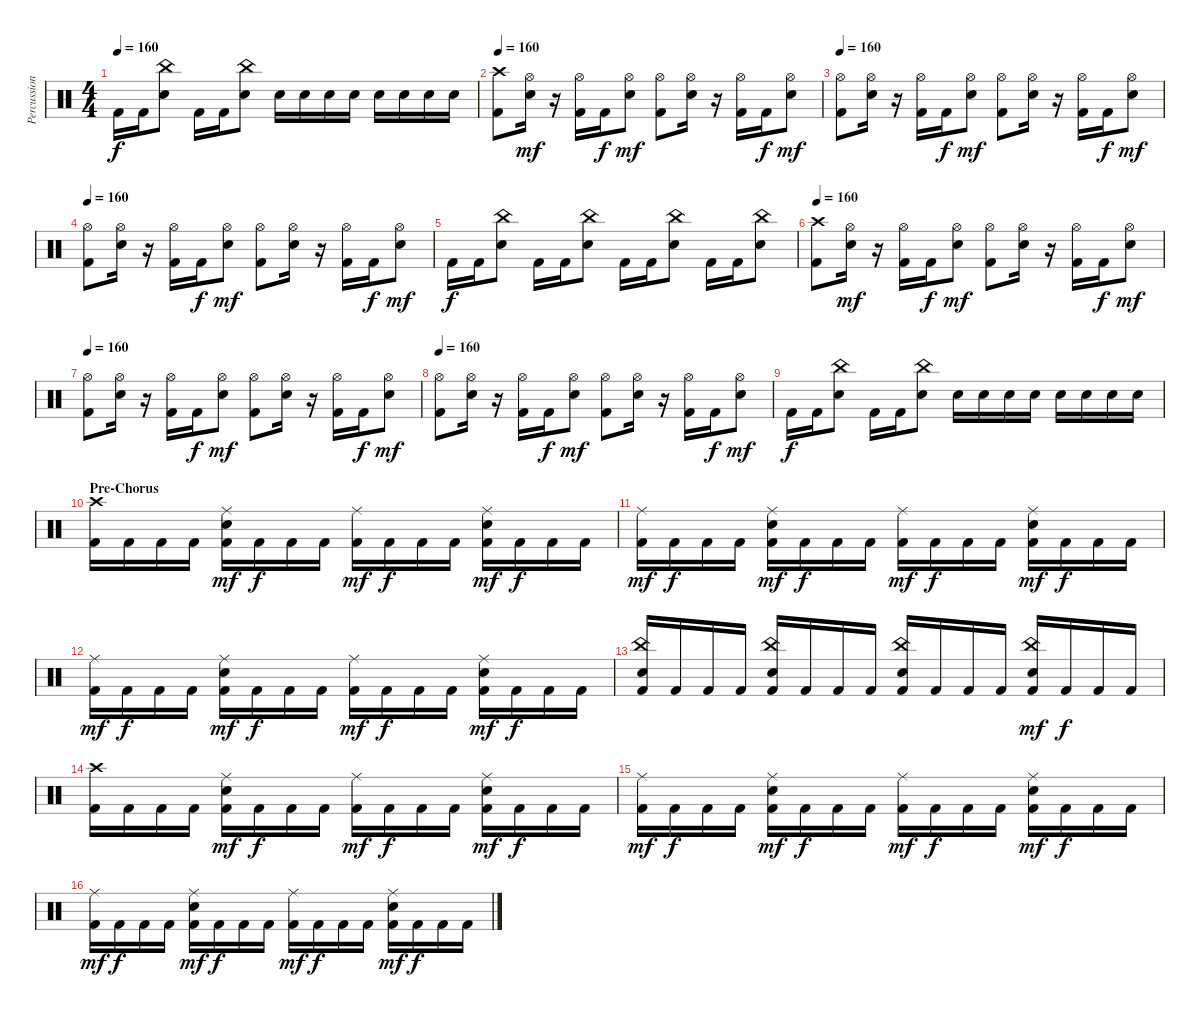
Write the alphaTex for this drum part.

\track ("Percussion" "Percussion") {instrument percussion}
\staff {score}
\articulation defaults
\ts (4 4)
\tempo 160
\clef neutral
\ks c "Kick (hit) 2".16{dy f} "Kick (hit) 2".16
("China (hit)" "Electric Snare (hit)").8 "Kick (hit) 2".16 "Kick (hit) 2".16 ("China (hit)" "Electric Snare (hit)").8 "Electric Snare (hit)".16 "Electric Snare (hit)".16 "Electric Snare (hit)".16 "Electric Snare (hit)".16 "Electric Snare (hit)".16 "Electric Snare (hit)".16 "Electric Snare (hit)".16 "Electric Snare (hit)".16 |
\tempo 160
("Crash high (hit)" "Kick (hit) 2").8 ("Hi-Hat (open)" "Electric Snare (hit)").16{dy mf} r.16 ("Hi-Hat (open)" "Kick (hit) 2").16 "Kick (hit) 2".16{dy f} ("Hi-Hat (open)" "Electric Snare (hit)").8{dy mf} ("Hi-Hat (open)" "Kick (hit) 2").8 ("Hi-Hat (open)" "Electric Snare (hit)").16 r.16 ("Hi-Hat (open)" "Kick (hit) 2").16 "Kick (hit) 2".16{dy f} ("Hi-Hat (open)" "Electric Snare (hit)").8{dy mf} |
\tempo 160
("Hi-Hat (open)" "Kick (hit) 2").8 ("Hi-Hat (open)" "Electric Snare (hit)").16 r.16 ("Hi-Hat (open)" "Kick (hit) 2").16 "Kick (hit) 2".16{dy f} ("Hi-Hat (open)" "Electric Snare (hit)").8{dy mf} ("Hi-Hat (open)" "Kick (hit) 2").8 ("Hi-Hat (open)" "Electric Snare (hit)").16 r.16 ("Hi-Hat (open)" "Kick (hit) 2").16 "Kick (hit) 2".16{dy f} ("Hi-Hat (open)" "Electric Snare (hit)").8{dy mf} |
\tempo 160
("Hi-Hat (open)" "Kick (hit) 2").8 ("Hi-Hat (open)" "Electric Snare (hit)").16 r.16 ("Hi-Hat (open)" "Kick (hit) 2").16 "Kick (hit) 2".16{dy f} ("Hi-Hat (open)" "Electric Snare (hit)").8{dy mf} ("Hi-Hat (open)" "Kick (hit) 2").8 ("Hi-Hat (open)" "Electric Snare (hit)").16 r.16 ("Hi-Hat (open)" "Kick (hit) 2").16 "Kick (hit) 2".16{dy f} ("Hi-Hat (open)" "Electric Snare (hit)").8{dy mf} |
"Kick (hit) 2".16{dy f} "Kick (hit) 2".16 ("China (hit)" "Electric Snare (hit)").8 "Kick (hit) 2".16 "Kick (hit) 2".16 ("China (hit)" "Electric Snare (hit)").8 "Kick (hit) 2".16 "Kick (hit) 2".16 ("China (hit)" "Electric Snare (hit)").8 "Kick (hit) 2".16 "Kick (hit) 2".16 ("China (hit)" "Electric Snare (hit)").8 |
\tempo 160
("Crash high (hit)" "Kick (hit) 2").8 ("Hi-Hat (open)" "Electric Snare (hit)").16{dy mf} r.16 ("Hi-Hat (open)" "Kick (hit) 2").16 "Kick (hit) 2".16{dy f} ("Hi-Hat (open)" "Electric Snare (hit)").8{dy mf} ("Hi-Hat (open)" "Kick (hit) 2").8 ("Hi-Hat (open)" "Electric Snare (hit)").16 r.16 ("Hi-Hat (open)" "Kick (hit) 2").16 "Kick (hit) 2".16{dy f} ("Hi-Hat (open)" "Electric Snare (hit)").8{dy mf} |
\tempo 160
("Hi-Hat (open)" "Kick (hit) 2").8 ("Hi-Hat (open)" "Electric Snare (hit)").16 r.16 ("Hi-Hat (open)" "Kick (hit) 2").16 "Kick (hit) 2".16{dy f} ("Hi-Hat (open)" "Electric Snare (hit)").8{dy mf} ("Hi-Hat (open)" "Kick (hit) 2").8 ("Hi-Hat (open)" "Electric Snare (hit)").16 r.16 ("Hi-Hat (open)" "Kick (hit) 2").16 "Kick (hit) 2".16{dy f} ("Hi-Hat (open)" "Electric Snare (hit)").8{dy mf} |
\tempo 160
("Hi-Hat (open)" "Kick (hit) 2").8 ("Hi-Hat (open)" "Electric Snare (hit)").16 r.16 ("Hi-Hat (open)" "Kick (hit) 2").16 "Kick (hit) 2".16{dy f} ("Hi-Hat (open)" "Electric Snare (hit)").8{dy mf} ("Hi-Hat (open)" "Kick (hit) 2").8 ("Hi-Hat (open)" "Electric Snare (hit)").16 r.16 ("Hi-Hat (open)" "Kick (hit) 2").16 "Kick (hit) 2".16{dy f} ("Hi-Hat (open)" "Electric Snare (hit)").8{dy mf} |
"Kick (hit) 2".16{dy f} "Kick (hit) 2".16 ("China (hit)" "Electric Snare (hit)").8 "Kick (hit) 2".16 "Kick (hit) 2".16 ("China (hit)" "Electric Snare (hit)").8 "Electric Snare (hit)".16 "Electric Snare (hit)".16 "Electric Snare (hit)".16 "Electric Snare (hit)".16 "Electric Snare (hit)".16 "Electric Snare (hit)".16 "Electric Snare (hit)".16 "Electric Snare (hit)".16 |
\section ("" "Pre-Chorus")
("Crash high (hit)" "Kick (hit) 2").16 "Kick (hit) 2".16 "Kick (hit) 2".16 "Kick (hit) 2".16 ("Ride (middle)" "Electric Snare (hit)" "Kick (hit) 2").16{dy mf} "Kick (hit) 2".16{dy f} "Kick (hit) 2".16 "Kick (hit) 2".16 ("Ride (middle)" "Kick (hit) 2").16{dy mf} "Kick (hit) 2".16{dy f} "Kick (hit) 2".16 "Kick (hit) 2".16 ("Ride (middle)" "Electric Snare (hit)" "Kick (hit) 2").16{dy mf} "Kick (hit) 2".16{dy f} "Kick (hit) 2".16 "Kick (hit) 2".16 |
("Ride (middle)" "Kick (hit) 2").16{dy mf} "Kick (hit) 2".16{dy f} "Kick (hit) 2".16 "Kick (hit) 2".16 ("Ride (middle)" "Electric Snare (hit)" "Kick (hit) 2").16{dy mf} "Kick (hit) 2".16{dy f} "Kick (hit) 2".16 "Kick (hit) 2".16 ("Ride (middle)" "Kick (hit) 2").16{dy mf} "Kick (hit) 2".16{dy f} "Kick (hit) 2".16 "Kick (hit) 2".16 ("Ride (middle)" "Electric Snare (hit)" "Kick (hit) 2").16{dy mf} "Kick (hit) 2".16{dy f} "Kick (hit) 2".16 "Kick (hit) 2".16 |
("Ride (middle)" "Kick (hit) 2").16{dy mf} "Kick (hit) 2".16{dy f} "Kick (hit) 2".16 "Kick (hit) 2".16 ("Ride (middle)" "Electric Snare (hit)" "Kick (hit) 2").16{dy mf} "Kick (hit) 2".16{dy f} "Kick (hit) 2".16 "Kick (hit) 2".16 ("Ride (middle)" "Kick (hit) 2").16{dy mf} "Kick (hit) 2".16{dy f} "Kick (hit) 2".16 "Kick (hit) 2".16 ("Ride (middle)" "Electric Snare (hit)" "Kick (hit) 2").16{dy mf} "Kick (hit) 2".16{dy f} "Kick (hit) 2".16 "Kick (hit) 2".16 |
("China (hit)" "Electric Snare (hit)" "Kick (hit) 2").16 "Kick (hit) 2".16 "Kick (hit) 2".16 "Kick (hit) 2".16 ("China (hit)" "Electric Snare (hit)" "Kick (hit) 2").16 "Kick (hit) 2".16 "Kick (hit) 2".16 "Kick (hit) 2".16 ("China (hit)" "Electric Snare (hit)" "Kick (hit) 2").16 "Kick (hit) 2".16 "Kick (hit) 2".16 "Kick (hit) 2".16 ("China (hit)" "Electric Snare (hit)" "Kick (hit) 2").16{dy mf} "Kick (hit) 2".16{dy f} "Kick (hit) 2".16 "Kick (hit) 2".16 |
("Crash high (hit)" "Kick (hit) 2").16 "Kick (hit) 2".16 "Kick (hit) 2".16 "Kick (hit) 2".16 ("Ride (middle)" "Electric Snare (hit)" "Kick (hit) 2").16{dy mf} "Kick (hit) 2".16{dy f} "Kick (hit) 2".16 "Kick (hit) 2".16 ("Ride (middle)" "Kick (hit) 2").16{dy mf} "Kick (hit) 2".16{dy f} "Kick (hit) 2".16 "Kick (hit) 2".16 ("Ride (middle)" "Electric Snare (hit)" "Kick (hit) 2").16{dy mf} "Kick (hit) 2".16{dy f} "Kick (hit) 2".16 "Kick (hit) 2".16 |
("Ride (middle)" "Kick (hit) 2").16{dy mf} "Kick (hit) 2".16{dy f} "Kick (hit) 2".16 "Kick (hit) 2".16 ("Ride (middle)" "Electric Snare (hit)" "Kick (hit) 2").16{dy mf} "Kick (hit) 2".16{dy f} "Kick (hit) 2".16 "Kick (hit) 2".16 ("Ride (middle)" "Kick (hit) 2").16{dy mf} "Kick (hit) 2".16{dy f} "Kick (hit) 2".16 "Kick (hit) 2".16 ("Ride (middle)" "Electric Snare (hit)" "Kick (hit) 2").16{dy mf} "Kick (hit) 2".16{dy f} "Kick (hit) 2".16 "Kick (hit) 2".16 |
("Ride (middle)" "Kick (hit) 2").16{dy mf} "Kick (hit) 2".16{dy f} "Kick (hit) 2".16 "Kick (hit) 2".16 ("Ride (middle)" "Electric Snare (hit)" "Kick (hit) 2").16{dy mf} "Kick (hit) 2".16{dy f} "Kick (hit) 2".16 "Kick (hit) 2".16 ("Ride (middle)" "Kick (hit) 2").16{dy mf} "Kick (hit) 2".16{dy f} "Kick (hit) 2".16 "Kick (hit) 2".16 ("Ride (middle)" "Electric Snare (hit)" "Kick (hit) 2").16{dy mf} "Kick (hit) 2".16{dy f} "Kick (hit) 2".16 "Kick (hit) 2".16
